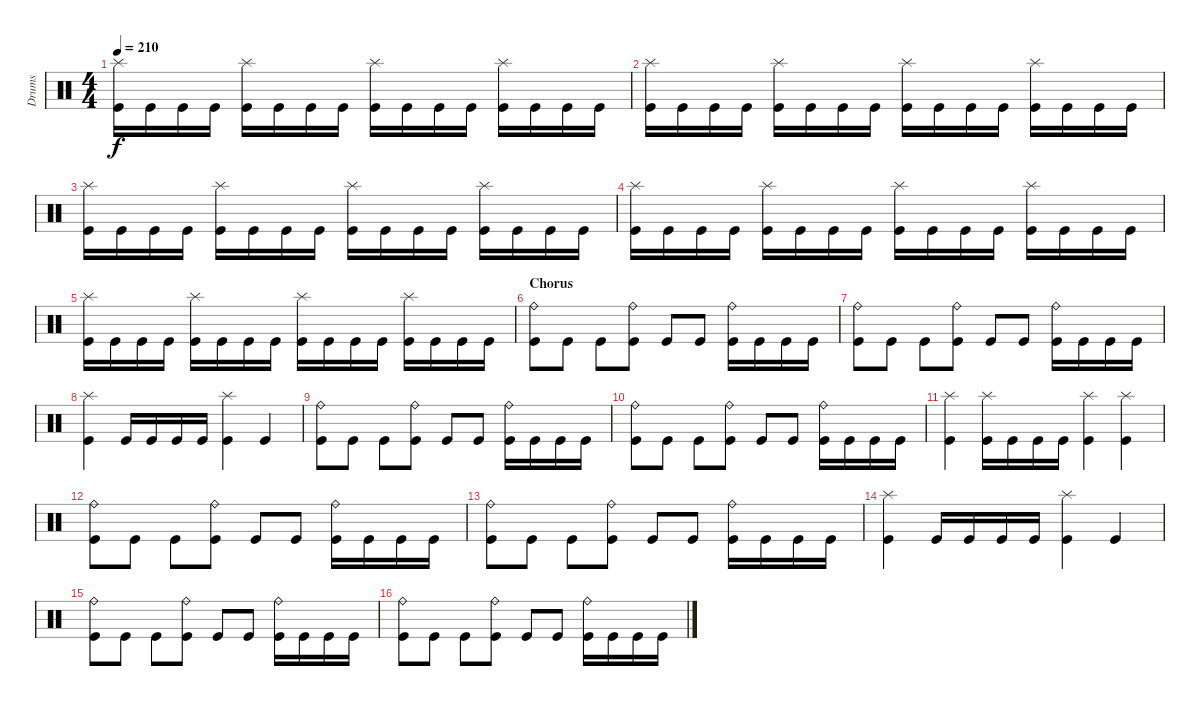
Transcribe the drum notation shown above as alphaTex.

\track ("Drums" "Drums") {instrument percussion}
\staff {score}
\articulation defaults
\ts (4 4)
\tempo 210
\clef neutral
\ks c
("Splash (hit)" "Kick (hit)").16{dy f} "Kick (hit)".16 "Kick (hit)".16 "Kick (hit)".16 ("Splash (hit)" "Kick (hit)").16 "Kick (hit)".16 "Kick (hit)".16 "Kick (hit)".16 ("Splash (hit)" "Kick (hit)").16 "Kick (hit)".16 "Kick (hit)".16 "Kick (hit)".16 ("Splash (hit)" "Kick (hit)").16 "Kick (hit)".16 "Kick (hit)".16 "Kick (hit)".16 |
("Splash (hit)" "Kick (hit)").16 "Kick (hit)".16 "Kick (hit)".16 "Kick (hit)".16 ("Splash (hit)" "Kick (hit)").16 "Kick (hit)".16 "Kick (hit)".16 "Kick (hit)".16 ("Splash (hit)" "Kick (hit)").16 "Kick (hit)".16 "Kick (hit)".16 "Kick (hit)".16 ("Splash (hit)" "Kick (hit)").16 "Kick (hit)".16 "Kick (hit)".16 "Kick (hit)".16 |
("Splash (hit)" "Kick (hit)").16 "Kick (hit)".16 "Kick (hit)".16 "Kick (hit)".16 ("Splash (hit)" "Kick (hit)").16 "Kick (hit)".16 "Kick (hit)".16 "Kick (hit)".16 ("Splash (hit)" "Kick (hit)").16 "Kick (hit)".16 "Kick (hit)".16 "Kick (hit)".16 ("Splash (hit)" "Kick (hit)").16 "Kick (hit)".16 "Kick (hit)".16 "Kick (hit)".16 |
("Splash (hit)" "Kick (hit)").16 "Kick (hit)".16 "Kick (hit)".16 "Kick (hit)".16 ("Splash (hit)" "Kick (hit)").16 "Kick (hit)".16 "Kick (hit)".16 "Kick (hit)".16 ("Splash (hit)" "Kick (hit)").16 "Kick (hit)".16 "Kick (hit)".16 "Kick (hit)".16 ("Splash (hit)" "Kick (hit)").16 "Kick (hit)".16 "Kick (hit)".16 "Kick (hit)".16 |
("Splash (hit)" "Kick (hit)").16 "Kick (hit)".16 "Kick (hit)".16 "Kick (hit)".16 ("Splash (hit)" "Kick (hit)").16 "Kick (hit)".16 "Kick (hit)".16 "Kick (hit)".16 ("Splash (hit)" "Kick (hit)").16 "Kick (hit)".16 "Kick (hit)".16 "Kick (hit)".16 ("Splash (hit)" "Kick (hit)").16 "Kick (hit)".16 "Kick (hit)".16 "Kick (hit)".16 |
\section ("" "Chorus")
("Ride (bell)" "Kick (hit)").8 "Kick (hit)".8 "Kick (hit)".8 ("Ride (bell)" "Kick (hit)").8 "Kick (hit)".8 "Kick (hit)".8 ("Ride (bell)" "Kick (hit)").16 "Kick (hit)".16 "Kick (hit)".16 "Kick (hit)".16 |
("Ride (bell)" "Kick (hit)").8 "Kick (hit)".8 "Kick (hit)".8 ("Ride (bell)" "Kick (hit)").8 "Kick (hit)".8 "Kick (hit)".8 ("Ride (bell)" "Kick (hit)").16 "Kick (hit)".16 "Kick (hit)".16 "Kick (hit)".16 |
("Splash (hit)" "Kick (hit)").4 "Kick (hit)".16 "Kick (hit)".16 "Kick (hit)".16 "Kick (hit)".16 ("Splash (hit)" "Kick (hit)").4 "Kick (hit)".4 |
("Ride (bell)" "Kick (hit)").8 "Kick (hit)".8 "Kick (hit)".8 ("Ride (bell)" "Kick (hit)").8 "Kick (hit)".8 "Kick (hit)".8 ("Ride (bell)" "Kick (hit)").16 "Kick (hit)".16 "Kick (hit)".16 "Kick (hit)".16 |
("Ride (bell)" "Kick (hit)").8 "Kick (hit)".8 "Kick (hit)".8 ("Ride (bell)" "Kick (hit)").8 "Kick (hit)".8 "Kick (hit)".8 ("Ride (bell)" "Kick (hit)").16 "Kick (hit)".16 "Kick (hit)".16 "Kick (hit)".16 |
("Splash (hit)" "Kick (hit)").4 ("Splash (hit)" "Kick (hit)").16 "Kick (hit)".16 "Kick (hit)".16 "Kick (hit)".16 ("Splash (hit)" "Kick (hit)").4 ("Splash (hit)" "Kick (hit)").4 |
("Ride (bell)" "Kick (hit)").8 "Kick (hit)".8 "Kick (hit)".8 ("Ride (bell)" "Kick (hit)").8 "Kick (hit)".8 "Kick (hit)".8 ("Ride (bell)" "Kick (hit)").16 "Kick (hit)".16 "Kick (hit)".16 "Kick (hit)".16 |
("Ride (bell)" "Kick (hit)").8 "Kick (hit)".8 "Kick (hit)".8 ("Ride (bell)" "Kick (hit)").8 "Kick (hit)".8 "Kick (hit)".8 ("Ride (bell)" "Kick (hit)").16 "Kick (hit)".16 "Kick (hit)".16 "Kick (hit)".16 |
("Splash (hit)" "Kick (hit)").4 "Kick (hit)".16 "Kick (hit)".16 "Kick (hit)".16 "Kick (hit)".16 ("Splash (hit)" "Kick (hit)").4 "Kick (hit)".4 |
("Ride (bell)" "Kick (hit)").8 "Kick (hit)".8 "Kick (hit)".8 ("Ride (bell)" "Kick (hit)").8 "Kick (hit)".8 "Kick (hit)".8 ("Ride (bell)" "Kick (hit)").16 "Kick (hit)".16 "Kick (hit)".16 "Kick (hit)".16 |
("Ride (bell)" "Kick (hit)").8 "Kick (hit)".8 "Kick (hit)".8 ("Ride (bell)" "Kick (hit)").8 "Kick (hit)".8 "Kick (hit)".8 ("Ride (bell)" "Kick (hit)").16 "Kick (hit)".16 "Kick (hit)".16 "Kick (hit)".16
